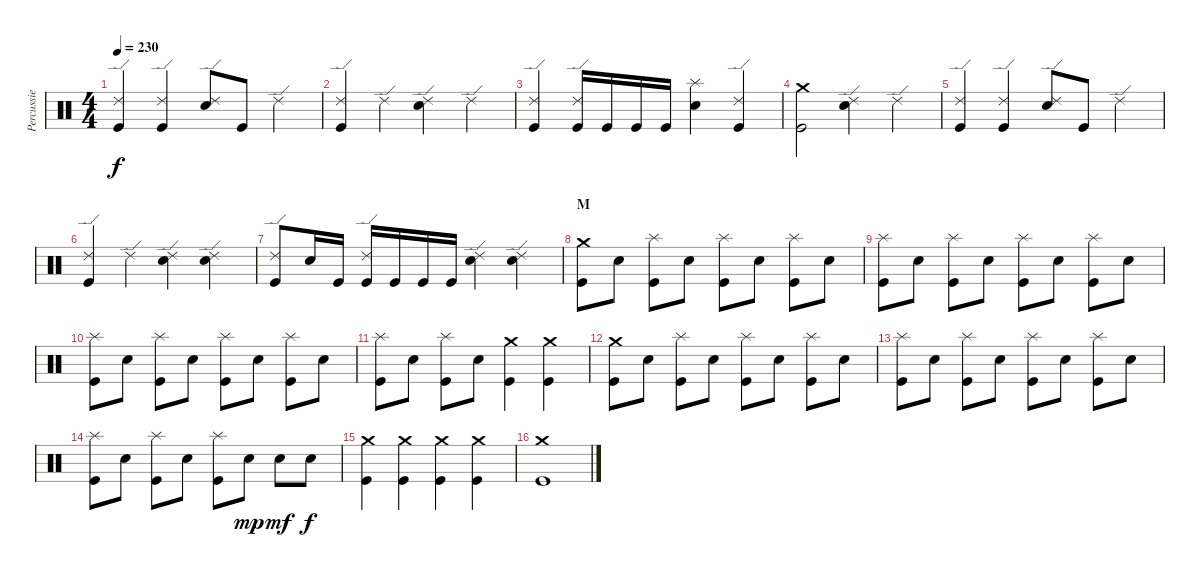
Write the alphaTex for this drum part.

\track ("Percussie" "Percussie") {instrument percussion}
\staff {score}
\articulation defaults
\ts (4 4)
\tempo 230
\clef neutral
\ks c
("Ride (edge) 2" "Kick (hit)").4{dy f} ("Ride (edge) 2" "Kick (hit)").4 ("Ride (edge) 2" "Electric Snare (hit)").8 "Kick (hit)".8 "Ride (edge) 2".4 |
("Ride (edge) 2" "Kick (hit)").4 "Ride (edge) 2".4 ("Ride (edge) 2" "Electric Snare (hit)").4 "Ride (edge) 2".4 |
("Ride (edge) 2" "Kick (hit)").4 ("Ride (edge) 2" "Kick (hit)").16 "Kick (hit)".16 "Kick (hit)".16 "Kick (hit)".16 ("Splash (hit)" "Electric Snare (hit)").4 ("Ride (edge) 2" "Kick (hit)").4 |
("Crash medium (hit)" "Kick (hit)").2 ("Ride (edge) 2" "Electric Snare (hit)").4 "Ride (edge) 2".4 |
("Ride (edge) 2" "Kick (hit)").4 ("Ride (edge) 2" "Kick (hit)").4 ("Ride (edge) 2" "Electric Snare (hit)").8 "Kick (hit)".8 "Ride (edge) 2".4 |
("Ride (edge) 2" "Kick (hit)").4 "Ride (edge) 2".4 ("Ride (edge) 2" "Electric Snare (hit)").4 ("Ride (edge) 2" "Electric Snare (hit)").4 |
("Ride (edge) 2" "Kick (hit)").8 "Electric Snare (hit)".16 "Kick (hit)".16 ("Ride (edge) 2" "Kick (hit)").16 "Kick (hit)".16 "Kick (hit)".16 "Kick (hit)".16 ("Ride (edge) 2" "Electric Snare (hit)").4 ("Ride (edge) 2" "Electric Snare (hit)").4 |
\section ("" "M")
("Crash medium (hit)" "Kick (hit)").8 "Electric Snare (hit)".8 ("Splash (hit)" "Kick (hit)").8 "Electric Snare (hit)".8 ("Splash (hit)" "Kick (hit)").8 "Electric Snare (hit)".8 ("Splash (hit)" "Kick (hit)").8 "Electric Snare (hit)".8 |
("Splash (hit)" "Kick (hit)").8 "Electric Snare (hit)".8 ("Splash (hit)" "Kick (hit)").8 "Electric Snare (hit)".8 ("Splash (hit)" "Kick (hit)").8 "Electric Snare (hit)".8 ("Splash (hit)" "Kick (hit)").8 "Electric Snare (hit)".8 |
("Splash (hit)" "Kick (hit)").8 "Electric Snare (hit)".8 ("Splash (hit)" "Kick (hit)").8 "Electric Snare (hit)".8 ("Splash (hit)" "Kick (hit)").8 "Electric Snare (hit)".8 ("Splash (hit)" "Kick (hit)").8 "Electric Snare (hit)".8 |
("Splash (hit)" "Kick (hit)").8 "Electric Snare (hit)".8 ("Splash (hit)" "Kick (hit)").8 "Electric Snare (hit)".8 ("Crash medium (hit)" "Kick (hit)").4 ("Crash medium (hit)" "Kick (hit)").4 |
("Crash medium (hit)" "Kick (hit)").8 "Electric Snare (hit)".8 ("Splash (hit)" "Kick (hit)").8 "Electric Snare (hit)".8 ("Splash (hit)" "Kick (hit)").8 "Electric Snare (hit)".8 ("Splash (hit)" "Kick (hit)").8 "Electric Snare (hit)".8 |
("Splash (hit)" "Kick (hit)").8 "Electric Snare (hit)".8 ("Splash (hit)" "Kick (hit)").8 "Electric Snare (hit)".8 ("Splash (hit)" "Kick (hit)").8 "Electric Snare (hit)".8 ("Splash (hit)" "Kick (hit)").8 "Electric Snare (hit)".8 |
("Splash (hit)" "Kick (hit)").8 "Electric Snare (hit)".8 ("Splash (hit)" "Kick (hit)").8 "Electric Snare (hit)".8 ("Splash (hit)" "Kick (hit)").8 "Electric Snare (hit)".8{dy mp} "Electric Snare (hit)".8{dy mf} "Electric Snare (hit)".8{dy f} |
("Crash medium (hit)" "Kick (hit)").4 ("Crash medium (hit)" "Kick (hit)").4 ("Crash medium (hit)" "Kick (hit)").4 ("Crash medium (hit)" "Kick (hit)").4 |
("Crash medium (hit)" "Kick (hit)").1
